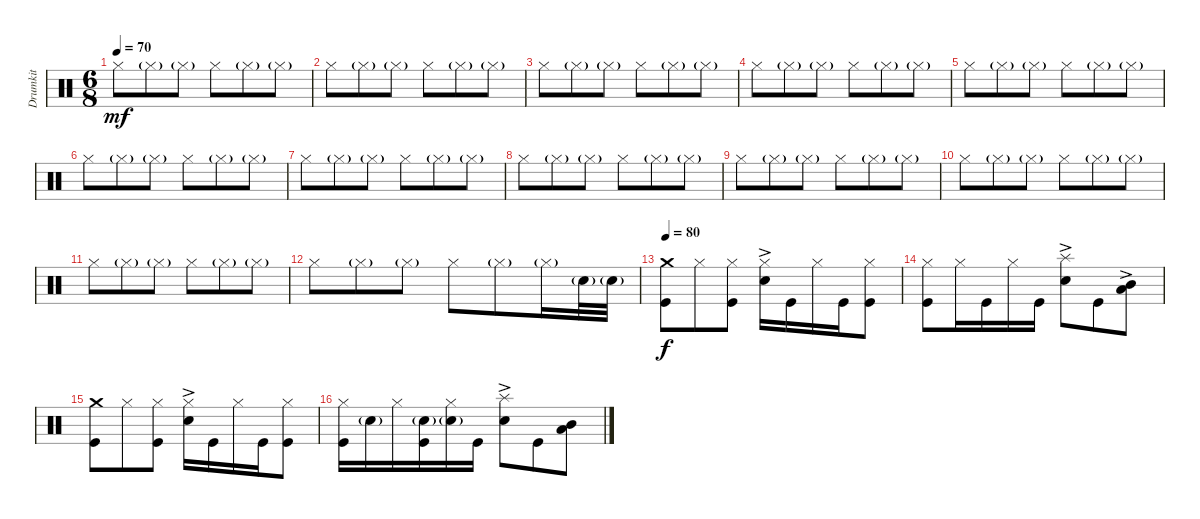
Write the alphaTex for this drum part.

\track ("Drumkit" "Drumkit") {instrument percussion}
\staff {score}
\articulation defaults
\ts (6 8)
\tempo 70
\clef neutral
\ks c "Hi-Hat (closed)".8{dy mf} "Hi-Hat (closed)"{g}.8 "Hi-Hat (closed)"{g}.8 "Hi-Hat (closed)".8 "Hi-Hat (closed)"{g}.8 "Hi-Hat (closed)"{g}.8
|
"Hi-Hat (closed)".8 "Hi-Hat (closed)"{g}.8 "Hi-Hat (closed)"{g}.8 "Hi-Hat (closed)".8 "Hi-Hat (closed)"{g}.8 "Hi-Hat (closed)"{g}.8 |
"Hi-Hat (closed)".8 "Hi-Hat (closed)"{g}.8 "Hi-Hat (closed)"{g}.8 "Hi-Hat (closed)".8 "Hi-Hat (closed)"{g}.8 "Hi-Hat (closed)"{g}.8 |
"Hi-Hat (closed)".8 "Hi-Hat (closed)"{g}.8 "Hi-Hat (closed)"{g}.8 "Hi-Hat (closed)".8 "Hi-Hat (closed)"{g}.8 "Hi-Hat (closed)"{g}.8 |
"Hi-Hat (closed)".8 "Hi-Hat (closed)"{g}.8 "Hi-Hat (closed)"{g}.8 "Hi-Hat (closed)".8 "Hi-Hat (closed)"{g}.8 "Hi-Hat (closed)"{g}.8 |
"Hi-Hat (closed)".8 "Hi-Hat (closed)"{g}.8 "Hi-Hat (closed)"{g}.8 "Hi-Hat (closed)".8 "Hi-Hat (closed)"{g}.8 "Hi-Hat (closed)"{g}.8 |
"Hi-Hat (closed)".8 "Hi-Hat (closed)"{g}.8 "Hi-Hat (closed)"{g}.8 "Hi-Hat (closed)".8 "Hi-Hat (closed)"{g}.8 "Hi-Hat (closed)"{g}.8 |
"Hi-Hat (closed)".8 "Hi-Hat (closed)"{g}.8 "Hi-Hat (closed)"{g}.8 "Hi-Hat (closed)".8 "Hi-Hat (closed)"{g}.8 "Hi-Hat (closed)"{g}.8 |
"Hi-Hat (closed)".8 "Hi-Hat (closed)"{g}.8 "Hi-Hat (closed)"{g}.8 "Hi-Hat (closed)".8 "Hi-Hat (closed)"{g}.8 "Hi-Hat (closed)"{g}.8 |
"Hi-Hat (closed)".8 "Hi-Hat (closed)"{g}.8 "Hi-Hat (closed)"{g}.8 "Hi-Hat (closed)".8 "Hi-Hat (closed)"{g}.8 "Hi-Hat (closed)"{g}.8 |
"Hi-Hat (closed)".8 "Hi-Hat (closed)"{g}.8 "Hi-Hat (closed)"{g}.8 "Hi-Hat (closed)".8 "Hi-Hat (closed)"{g}.8 "Hi-Hat (closed)"{g}.8 |
"Hi-Hat (closed)".8 "Hi-Hat (closed)"{g}.8 "Hi-Hat (closed)"{g}.8 "Hi-Hat (closed)".8 "Hi-Hat (closed)"{g}.8 "Hi-Hat (closed)"{g}.16 "Snare (hit) 2"{g}.32 "Snare (hit) 2"{g}.32 |
\tempo 80
("Kick (hit)" "Crash medium (hit)").8{dy f} "Hi-Hat (closed)".8 ("Kick (hit)" "Hi-Hat (closed)").8 ("Hi-Hat (closed)" "Snare (hit) 2"{ac}).16 "Kick (hit)".16 "Hi-Hat (closed)".16 "Kick (hit)".16 ("Kick (hit)" "Hi-Hat (closed)").8 |
("Kick (hit)" "Hi-Hat (closed)").8 "Hi-Hat (closed)".16 "Kick (hit)".16 "Hi-Hat (closed)".16 "Kick (hit)".16 ("Snare (hit) 2"{ac} "Splash (hit)").8 "Kick (hit)".8 ("Low Tom (hit)" "Mid Tom (hit)"{ac}).8 |
("Kick (hit)" "Crash medium (hit)").8 "Hi-Hat (closed)".8 ("Kick (hit)" "Hi-Hat (closed)").8 ("Hi-Hat (closed)" "Snare (hit) 2"{ac}).16 "Kick (hit)".16 "Hi-Hat (closed)".16 "Kick (hit)".16 ("Kick (hit)" "Hi-Hat (closed)").8 |
("Kick (hit)" "Hi-Hat (closed)").16 "Snare (hit) 2"{g}.16 "Hi-Hat (closed)".16 ("Kick (hit)" "Snare (hit) 2"{g}).16 ("Hi-Hat (closed)" "Snare (hit) 2"{g}).16 "Kick (hit)".16 ("Snare (hit) 2"{ac} "Splash (hit)").8 "Kick (hit)".8 ("Low Tom (hit)" "Mid Tom (hit)").8
